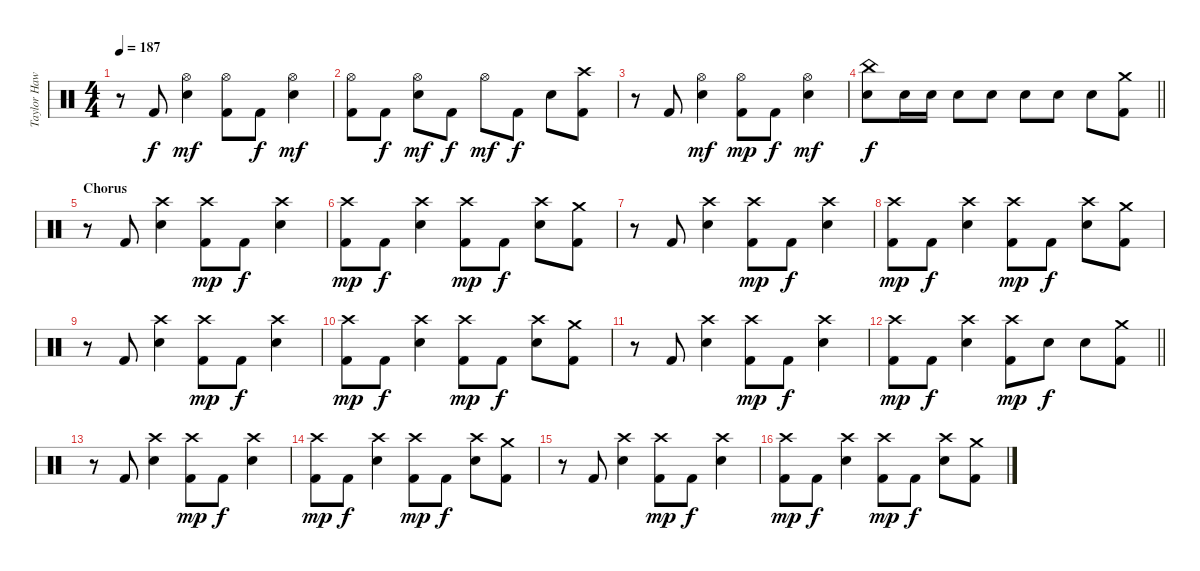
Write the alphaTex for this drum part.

\track ("Taylor Hawkins" "Taylor Haw") {instrument percussion}
\staff {score}
\articulation defaults
\ts (4 4)
\tempo 187
\clef neutral
\ks c
r.8{dy f} "Kick (hit) 2".8 ("Hi-Hat (open)" "Snare (hit) 2").4{dy mf} ("Hi-Hat (open)" "Kick (hit) 2").8 "Kick (hit) 2".8{dy f} ("Hi-Hat (open)" "Snare (hit) 2").4{dy mf} |
("Hi-Hat (open)" "Kick (hit) 2").8 "Kick (hit) 2".8{dy f} ("Hi-Hat (open)" "Snare (hit) 2").8{dy mf} "Kick (hit) 2".8{dy f} "Hi-Hat (open)".8{dy mf} "Kick (hit) 2".8{dy f} "Snare (hit) 2".8 ("Crash high (hit)" "Kick (hit) 2").8 |
r.8 "Kick (hit) 2".8 ("Hi-Hat (open)" "Snare (hit) 2").4{dy mf} ("Hi-Hat (open)" "Kick (hit) 2").8{dy mp} "Kick (hit) 2".8{dy f} ("Hi-Hat (open)" "Snare (hit) 2").4{dy mf} |
\barLineRight lightlight
("China (hit)" "Snare (hit) 2").8{dy f} "Snare (hit) 2".16 "Snare (hit) 2".16 "Snare (hit) 2".8 "Snare (hit) 2".8 "Snare (hit) 2".8 "Snare (hit) 2".8 "Snare (hit) 2".8 ("Crash medium (hit)" "Kick (hit) 2").8 |
\section ("" "Chorus")
r.8 "Kick (hit) 2".8 ("Crash high (hit)" "Snare (hit) 2").4 ("Crash high (hit)" "Kick (hit) 2").8{dy mp} "Kick (hit) 2".8{dy f} ("Crash high (hit)" "Snare (hit) 2").4 |
("Crash high (hit)" "Kick (hit) 2").8{dy mp} "Kick (hit) 2".8{dy f} ("Crash high (hit)" "Snare (hit) 2").4 ("Crash high (hit)" "Kick (hit) 2").8{dy mp} "Kick (hit) 2".8{dy f} ("Crash high (hit)" "Snare (hit) 2").8 ("Crash medium (hit)" "Kick (hit) 2").8 |
r.8 "Kick (hit) 2".8 ("Crash high (hit)" "Snare (hit) 2").4 ("Crash high (hit)" "Kick (hit) 2").8{dy mp} "Kick (hit) 2".8{dy f} ("Crash high (hit)" "Snare (hit) 2").4 |
("Crash high (hit)" "Kick (hit) 2").8{dy mp} "Kick (hit) 2".8{dy f} ("Crash high (hit)" "Snare (hit) 2").4 ("Crash high (hit)" "Kick (hit) 2").8{dy mp} "Kick (hit) 2".8{dy f} ("Crash high (hit)" "Snare (hit) 2").8 ("Crash medium (hit)" "Kick (hit) 2").8 |
r.8 "Kick (hit) 2".8 ("Crash high (hit)" "Snare (hit) 2").4 ("Crash high (hit)" "Kick (hit) 2").8{dy mp} "Kick (hit) 2".8{dy f} ("Crash high (hit)" "Snare (hit) 2").4 |
("Crash high (hit)" "Kick (hit) 2").8{dy mp} "Kick (hit) 2".8{dy f} ("Crash high (hit)" "Snare (hit) 2").4 ("Crash high (hit)" "Kick (hit) 2").8{dy mp} "Kick (hit) 2".8{dy f} ("Crash high (hit)" "Snare (hit) 2").8 ("Crash medium (hit)" "Kick (hit) 2").8 |
r.8 "Kick (hit) 2".8 ("Crash high (hit)" "Snare (hit) 2").4 ("Crash high (hit)" "Kick (hit) 2").8{dy mp} "Kick (hit) 2".8{dy f} ("Crash high (hit)" "Snare (hit) 2").4 |
\barLineRight lightlight
("Crash high (hit)" "Kick (hit) 2").8{dy mp} "Kick (hit) 2".8{dy f} ("Crash high (hit)" "Snare (hit) 2").4 ("Crash high (hit)" "Kick (hit) 2").8{dy mp} "Snare (hit) 2".8{dy f} "Snare (hit) 2".8 ("Crash medium (hit)" "Kick (hit) 2").8 |
r.8 "Kick (hit) 2".8 ("Crash high (hit)" "Snare (hit) 2").4 ("Crash high (hit)" "Kick (hit) 2").8{dy mp} "Kick (hit) 2".8{dy f} ("Crash high (hit)" "Snare (hit) 2").4 |
("Crash high (hit)" "Kick (hit) 2").8{dy mp} "Kick (hit) 2".8{dy f} ("Crash high (hit)" "Snare (hit) 2").4 ("Crash high (hit)" "Kick (hit) 2").8{dy mp} "Kick (hit) 2".8{dy f} ("Crash high (hit)" "Snare (hit) 2").8 ("Crash medium (hit)" "Kick (hit) 2").8 |
r.8 "Kick (hit) 2".8 ("Crash high (hit)" "Snare (hit) 2").4 ("Crash high (hit)" "Kick (hit) 2").8{dy mp} "Kick (hit) 2".8{dy f} ("Crash high (hit)" "Snare (hit) 2").4 |
("Crash high (hit)" "Kick (hit) 2").8{dy mp} "Kick (hit) 2".8{dy f} ("Crash high (hit)" "Snare (hit) 2").4 ("Crash high (hit)" "Kick (hit) 2").8{dy mp} "Kick (hit) 2".8{dy f} ("Crash high (hit)" "Snare (hit) 2").8 ("Crash medium (hit)" "Kick (hit) 2").8
